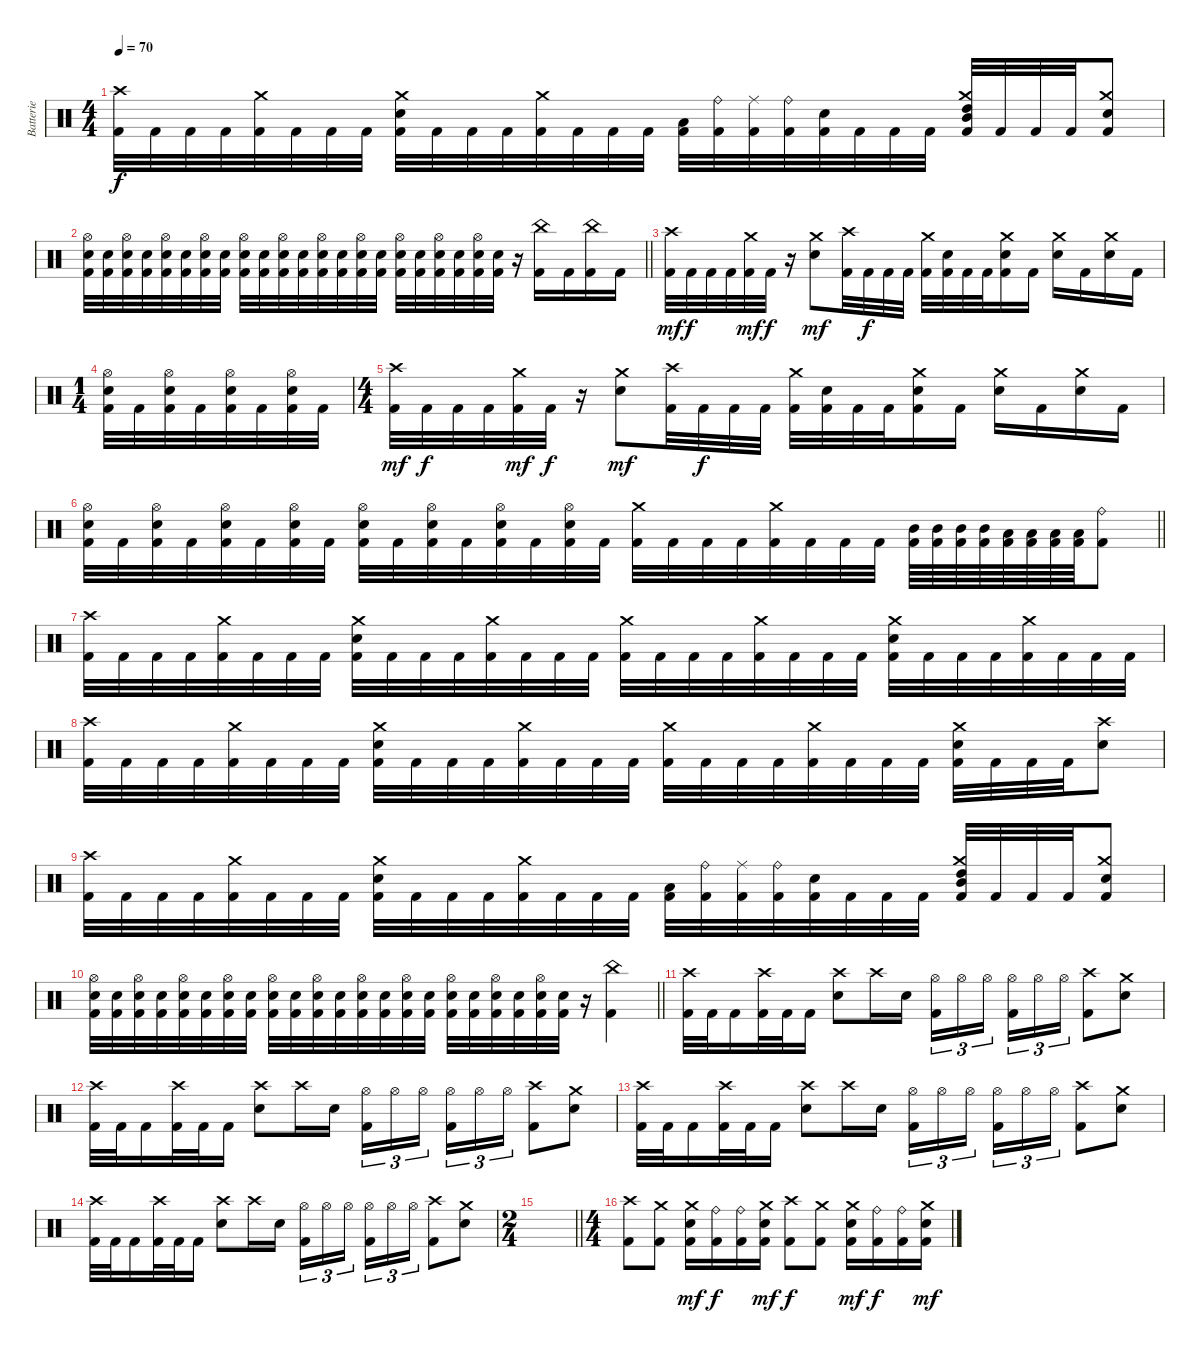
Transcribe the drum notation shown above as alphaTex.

\track ("Batterie" "Batterie") {instrument percussion}
\staff {score}
\articulation defaults
\ts (4 4)
\tempo 70
\clef neutral
\ks c
("Crash high (hit)" "Kick (hit) 2").32{dy f} "Kick (hit) 2".32 "Kick (hit) 2".32 "Kick (hit) 2".32 ("Crash medium (hit)" "Kick (hit) 2").32 "Kick (hit) 2".32 "Kick (hit) 2".32 "Kick (hit) 2".32 ("Crash medium (hit)" "Snare (hit) 2" "Kick (hit) 2").32 "Kick (hit) 2".32 "Kick (hit) 2".32 "Kick (hit) 2".32 ("Crash medium (hit)" "Kick (hit) 2").32 "Kick (hit) 2".32 "Kick (hit) 2".32 "Kick (hit) 2".32 ("Low Tom (hit)" "Kick (hit) 2").32 ("Ride (bell)" "Kick (hit) 2").32 ("Ride (middle)" "Kick (hit) 2").32 ("Ride (bell)" "Kick (hit) 2").32 ("Snare (hit) 2" "Kick (hit) 2").32 "Kick (hit) 2".32 "Kick (hit) 2".32 "Kick (hit) 2".32 ("Crash medium (hit)" "High Tom (hit)" "Mid Tom (hit)" "Kick (hit) 2").32 "Kick (hit) 2".32 "Kick (hit) 2".32 "Kick (hit) 2".32 ("Crash medium (hit)" "Snare (hit) 2" "Kick (hit) 2").8 |
\barLineRight lightlight
("Hi-Hat (open)" "Snare (hit) 2" "Kick (hit) 2").32 ("Snare (hit) 2" "Kick (hit) 2").32 ("Hi-Hat (open)" "Snare (hit) 2" "Kick (hit) 2").32 ("Snare (hit) 2" "Kick (hit) 2").32 ("Hi-Hat (open)" "Snare (hit) 2" "Kick (hit) 2").32 ("Snare (hit) 2" "Kick (hit) 2").32 ("Hi-Hat (open)" "Snare (hit) 2" "Kick (hit) 2").32 ("Snare (hit) 2" "Kick (hit) 2").32 ("Hi-Hat (open)" "Snare (hit) 2" "Kick (hit) 2").32 ("Snare (hit) 2" "Kick (hit) 2").32 ("Hi-Hat (open)" "Snare (hit) 2" "Kick (hit) 2").32 ("Snare (hit) 2" "Kick (hit) 2").32 ("Hi-Hat (open)" "Snare (hit) 2" "Kick (hit) 2").32 ("Snare (hit) 2" "Kick (hit) 2").32 ("Hi-Hat (open)" "Snare (hit) 2" "Kick (hit) 2").32 ("Snare (hit) 2" "Kick (hit) 2").32 ("Hi-Hat (open)" "Snare (hit) 2" "Kick (hit) 2").32 ("Snare (hit) 2" "Kick (hit) 2").32 ("Hi-Hat (open)" "Snare (hit) 2" "Kick (hit) 2").32 ("Snare (hit) 2" "Kick (hit) 2").32 ("Hi-Hat (open)" "Snare (hit) 2" "Kick (hit) 2").32 ("Snare (hit) 2" "Kick (hit) 2").32 r.16 ("China (hit)" "Kick (hit) 2").16 "Kick (hit) 2".16 ("China (hit)" "Kick (hit) 2").16 "Kick (hit) 2".16 |
\section ("" "")
("Crash high (hit)" "Kick (hit) 2").32{dy mf} "Kick (hit) 2".32{dy f} "Kick (hit) 2".32 "Kick (hit) 2".32 ("Crash medium (hit)" "Kick (hit) 2").32{dy mf} "Kick (hit) 2".32{dy f} r.16 ("Crash medium (hit)" "Snare (hit) 2").8{dy mf} ("Crash high (hit)" "Kick (hit) 2").32 "Kick (hit) 2".32{dy f} "Kick (hit) 2".32 "Kick (hit) 2".32 ("Crash medium (hit)" "Kick (hit) 2").32 ("Snare (hit) 2" "Kick (hit) 2").32 "Kick (hit) 2".32 "Kick (hit) 2".32 ("Crash medium (hit)" "Snare (hit) 2" "Kick (hit) 2").16 "Kick (hit) 2".16 ("Crash medium (hit)" "Snare (hit) 2").16 "Kick (hit) 2".16 ("Crash medium (hit)" "Snare (hit) 2").16 "Kick (hit) 2".16 |
\ts (1 4)
("Hi-Hat (open)" "Snare (hit) 2" "Kick (hit) 2").32 "Kick (hit) 2".32 ("Hi-Hat (open)" "Snare (hit) 2" "Kick (hit) 2").32 "Kick (hit) 2".32 ("Hi-Hat (open)" "Snare (hit) 2" "Kick (hit) 2").32 "Kick (hit) 2".32 ("Hi-Hat (open)" "Snare (hit) 2" "Kick (hit) 2").32 "Kick (hit) 2".32 |
\ts (4 4)
("Crash high (hit)" "Kick (hit) 2").32{dy mf} "Kick (hit) 2".32{dy f} "Kick (hit) 2".32 "Kick (hit) 2".32 ("Crash medium (hit)" "Kick (hit) 2").32{dy mf} "Kick (hit) 2".32{dy f} r.16 ("Crash medium (hit)" "Snare (hit) 2").8{dy mf} ("Crash high (hit)" "Kick (hit) 2").32 "Kick (hit) 2".32{dy f} "Kick (hit) 2".32 "Kick (hit) 2".32 ("Crash medium (hit)" "Kick (hit) 2").32 ("Snare (hit) 2" "Kick (hit) 2").32 "Kick (hit) 2".32 "Kick (hit) 2".32 ("Crash medium (hit)" "Snare (hit) 2" "Kick (hit) 2").16 "Kick (hit) 2".16 ("Crash medium (hit)" "Snare (hit) 2").16 "Kick (hit) 2".16 ("Crash medium (hit)" "Snare (hit) 2").16 "Kick (hit) 2".16 |
\barLineRight lightlight
("Hi-Hat (open)" "Snare (hit) 2" "Kick (hit) 2").32 "Kick (hit) 2".32 ("Hi-Hat (open)" "Snare (hit) 2" "Kick (hit) 2").32 "Kick (hit) 2".32 ("Hi-Hat (open)" "Snare (hit) 2" "Kick (hit) 2").32 "Kick (hit) 2".32 ("Hi-Hat (open)" "Snare (hit) 2" "Kick (hit) 2").32 "Kick (hit) 2".32 ("Hi-Hat (open)" "Snare (hit) 2" "Kick (hit) 2").32 "Kick (hit) 2".32 ("Hi-Hat (open)" "Snare (hit) 2" "Kick (hit) 2").32 "Kick (hit) 2".32 ("Hi-Hat (open)" "Snare (hit) 2" "Kick (hit) 2").32 "Kick (hit) 2".32 ("Hi-Hat (open)" "Snare (hit) 2" "Kick (hit) 2").32 "Kick (hit) 2".32 ("Crash medium (hit)" "Kick (hit) 2").32 "Kick (hit) 2".32 "Kick (hit) 2".32 "Kick (hit) 2".32 ("Crash medium (hit)" "Kick (hit) 2").32 "Kick (hit) 2".32 "Kick (hit) 2".32 "Kick (hit) 2".32 ("Mid Tom (hit)" "Kick (hit) 2").64 ("Mid Tom (hit)" "Kick (hit) 2").64 ("Mid Tom (hit)" "Kick (hit) 2").64 ("Mid Tom (hit)" "Kick (hit) 2").64 ("Low Tom (hit)" "Kick (hit) 2").64 ("Low Tom (hit)" "Kick (hit) 2").64 ("Low Tom (hit)" "Kick (hit) 2").64 ("Low Tom (hit)" "Kick (hit) 2").64 ("Ride (bell)" "Kick (hit) 2").8 |
\section ("" "")
("Crash high (hit)" "Kick (hit) 2").32 "Kick (hit) 2".32 "Kick (hit) 2".32 "Kick (hit) 2".32 ("Crash medium (hit)" "Kick (hit) 2").32 "Kick (hit) 2".32 "Kick (hit) 2".32 "Kick (hit) 2".32 ("Crash medium (hit)" "Snare (hit) 2" "Kick (hit) 2").32 "Kick (hit) 2".32 "Kick (hit) 2".32 "Kick (hit) 2".32 ("Crash medium (hit)" "Kick (hit) 2").32 "Kick (hit) 2".32 "Kick (hit) 2".32 "Kick (hit) 2".32 ("Crash medium (hit)" "Kick (hit) 2").32 "Kick (hit) 2".32 "Kick (hit) 2".32 "Kick (hit) 2".32 ("Crash medium (hit)" "Kick (hit) 2").32 "Kick (hit) 2".32 "Kick (hit) 2".32 "Kick (hit) 2".32 ("Crash medium (hit)" "Snare (hit) 2" "Kick (hit) 2").32 "Kick (hit) 2".32 "Kick (hit) 2".32 "Kick (hit) 2".32 ("Crash medium (hit)" "Kick (hit) 2").32 "Kick (hit) 2".32 "Kick (hit) 2".32 "Kick (hit) 2".32 |
("Crash high (hit)" "Kick (hit) 2").32 "Kick (hit) 2".32 "Kick (hit) 2".32 "Kick (hit) 2".32 ("Crash medium (hit)" "Kick (hit) 2").32 "Kick (hit) 2".32 "Kick (hit) 2".32 "Kick (hit) 2".32 ("Crash medium (hit)" "Snare (hit) 2" "Kick (hit) 2").32 "Kick (hit) 2".32 "Kick (hit) 2".32 "Kick (hit) 2".32 ("Crash medium (hit)" "Kick (hit) 2").32 "Kick (hit) 2".32 "Kick (hit) 2".32 "Kick (hit) 2".32 ("Crash medium (hit)" "Kick (hit) 2").32 "Kick (hit) 2".32 "Kick (hit) 2".32 "Kick (hit) 2".32 ("Crash medium (hit)" "Kick (hit) 2").32 "Kick (hit) 2".32 "Kick (hit) 2".32 "Kick (hit) 2".32 ("Crash medium (hit)" "Snare (hit) 2" "Kick (hit) 2").32 "Kick (hit) 2".32 "Kick (hit) 2".32 "Kick (hit) 2".32 ("Crash high (hit)" "Snare (hit) 2").8 |
("Crash high (hit)" "Kick (hit) 2").32 "Kick (hit) 2".32 "Kick (hit) 2".32 "Kick (hit) 2".32 ("Crash medium (hit)" "Kick (hit) 2").32 "Kick (hit) 2".32 "Kick (hit) 2".32 "Kick (hit) 2".32 ("Crash medium (hit)" "Snare (hit) 2" "Kick (hit) 2").32 "Kick (hit) 2".32 "Kick (hit) 2".32 "Kick (hit) 2".32 ("Crash medium (hit)" "Kick (hit) 2").32 "Kick (hit) 2".32 "Kick (hit) 2".32 "Kick (hit) 2".32 ("Low Tom (hit)" "Kick (hit) 2").32 ("Ride (bell)" "Kick (hit) 2").32 ("Ride (middle)" "Kick (hit) 2").32 ("Ride (bell)" "Kick (hit) 2").32 ("Snare (hit) 2" "Kick (hit) 2").32 "Kick (hit) 2".32 "Kick (hit) 2".32 "Kick (hit) 2".32 ("Crash medium (hit)" "High Tom (hit)" "Mid Tom (hit)" "Kick (hit) 2").32 "Kick (hit) 2".32 "Kick (hit) 2".32 "Kick (hit) 2".32 ("Crash medium (hit)" "Snare (hit) 2" "Kick (hit) 2").8 |
\barLineRight lightlight
("Hi-Hat (open)" "Snare (hit) 2" "Kick (hit) 2").32 ("Snare (hit) 2" "Kick (hit) 2").32 ("Hi-Hat (open)" "Snare (hit) 2" "Kick (hit) 2").32 ("Snare (hit) 2" "Kick (hit) 2").32 ("Hi-Hat (open)" "Snare (hit) 2" "Kick (hit) 2").32 ("Snare (hit) 2" "Kick (hit) 2").32 ("Hi-Hat (open)" "Snare (hit) 2" "Kick (hit) 2").32 ("Snare (hit) 2" "Kick (hit) 2").32 ("Hi-Hat (open)" "Snare (hit) 2" "Kick (hit) 2").32 ("Snare (hit) 2" "Kick (hit) 2").32 ("Hi-Hat (open)" "Snare (hit) 2" "Kick (hit) 2").32 ("Snare (hit) 2" "Kick (hit) 2").32 ("Hi-Hat (open)" "Snare (hit) 2" "Kick (hit) 2").32 ("Snare (hit) 2" "Kick (hit) 2").32 ("Hi-Hat (open)" "Snare (hit) 2" "Kick (hit) 2").32 ("Snare (hit) 2" "Kick (hit) 2").32 ("Hi-Hat (open)" "Snare (hit) 2" "Kick (hit) 2").32 ("Snare (hit) 2" "Kick (hit) 2").32 ("Hi-Hat (open)" "Snare (hit) 2" "Kick (hit) 2").32 ("Snare (hit) 2" "Kick (hit) 2").32 ("Hi-Hat (open)" "Snare (hit) 2" "Kick (hit) 2").32 ("Snare (hit) 2" "Kick (hit) 2").32 r.16 ("China (hit)" "Kick (hit) 2").4 |
\section ("" "")
("Crash high (hit)" "Kick (hit) 2").32 "Kick (hit) 2".32 "Kick (hit) 2".16 ("Crash high (hit)" "Kick (hit) 2").32 "Kick (hit) 2".32 "Kick (hit) 2".16 ("Crash high (hit)" "Snare (hit) 2").8 "Crash high (hit)".16 "Snare (hit) 2".16 ("Hi-Hat (open)" "Kick (hit) 2").16{tu (3 2)} "Hi-Hat (open)".16{tu (3 2)} "Hi-Hat (open)".16{tu (3 2) beam splitsecondary} ("Hi-Hat (open)" "Kick (hit) 2").16{tu (3 2)} "Hi-Hat (open)".16{tu (3 2)} "Hi-Hat (open)".16{tu (3 2)} ("Crash high (hit)" "Kick (hit) 2").8 ("Crash medium (hit)" "Snare (hit) 2").8 |
("Crash high (hit)" "Kick (hit) 2").32 "Kick (hit) 2".32 "Kick (hit) 2".16 ("Crash high (hit)" "Kick (hit) 2").32 "Kick (hit) 2".32 "Kick (hit) 2".16 ("Crash high (hit)" "Snare (hit) 2").8 "Crash high (hit)".16 "Snare (hit) 2".16 ("Hi-Hat (open)" "Kick (hit) 2").16{tu (3 2)} "Hi-Hat (open)".16{tu (3 2)} "Hi-Hat (open)".16{tu (3 2) beam splitsecondary} ("Hi-Hat (open)" "Kick (hit) 2").16{tu (3 2)} "Hi-Hat (open)".16{tu (3 2)} "Hi-Hat (open)".16{tu (3 2)} ("Crash high (hit)" "Kick (hit) 2").8 ("Crash medium (hit)" "Snare (hit) 2").8 |
("Crash high (hit)" "Kick (hit) 2").32 "Kick (hit) 2".32 "Kick (hit) 2".16 ("Crash high (hit)" "Kick (hit) 2").32 "Kick (hit) 2".32 "Kick (hit) 2".16 ("Crash high (hit)" "Snare (hit) 2").8 "Crash high (hit)".16 "Snare (hit) 2".16 ("Hi-Hat (open)" "Kick (hit) 2").16{tu (3 2)} "Hi-Hat (open)".16{tu (3 2)} "Hi-Hat (open)".16{tu (3 2) beam splitsecondary} ("Hi-Hat (open)" "Kick (hit) 2").16{tu (3 2)} "Hi-Hat (open)".16{tu (3 2)} "Hi-Hat (open)".16{tu (3 2)} ("Crash high (hit)" "Kick (hit) 2").8 ("Crash medium (hit)" "Snare (hit) 2").8 |
("Crash high (hit)" "Kick (hit) 2").32 "Kick (hit) 2".32 "Kick (hit) 2".16 ("Crash high (hit)" "Kick (hit) 2").32 "Kick (hit) 2".32 "Kick (hit) 2".16 ("Crash high (hit)" "Snare (hit) 2").8 "Crash high (hit)".16 "Snare (hit) 2".16 ("Hi-Hat (open)" "Kick (hit) 2").16{tu (3 2)} "Hi-Hat (open)".16{tu (3 2)} "Hi-Hat (open)".16{tu (3 2) beam splitsecondary} ("Hi-Hat (open)" "Kick (hit) 2").16{tu (3 2)} "Hi-Hat (open)".16{tu (3 2)} "Hi-Hat (open)".16{tu (3 2)} ("Crash high (hit)" "Kick (hit) 2").8 ("Crash medium (hit)" "Snare (hit) 2").8 |
\ts (2 4)
\barLineRight lightlight
|
\ts (4 4)
\section ("" "")
("Crash high (hit)" "Kick (hit) 2").8 ("Crash medium (hit)" "Kick (hit) 2").8 ("Crash medium (hit)" "Snare (hit) 2" "Kick (hit) 2").16{dy mf} ("Ride (bell)" "Kick (hit) 2").16{dy f} ("Ride (bell)" "Kick (hit) 2").16 ("Crash medium (hit)" "Snare (hit) 2" "Kick (hit) 2").16{dy mf} ("Crash high (hit)" "Kick (hit) 2").8{dy f} ("Crash medium (hit)" "Kick (hit) 2").8 ("Crash medium (hit)" "Snare (hit) 2" "Kick (hit) 2").16{dy mf} ("Ride (bell)" "Kick (hit) 2").16{dy f} ("Ride (bell)" "Kick (hit) 2").16 ("Crash medium (hit)" "Snare (hit) 2" "Kick (hit) 2").16{dy mf}
